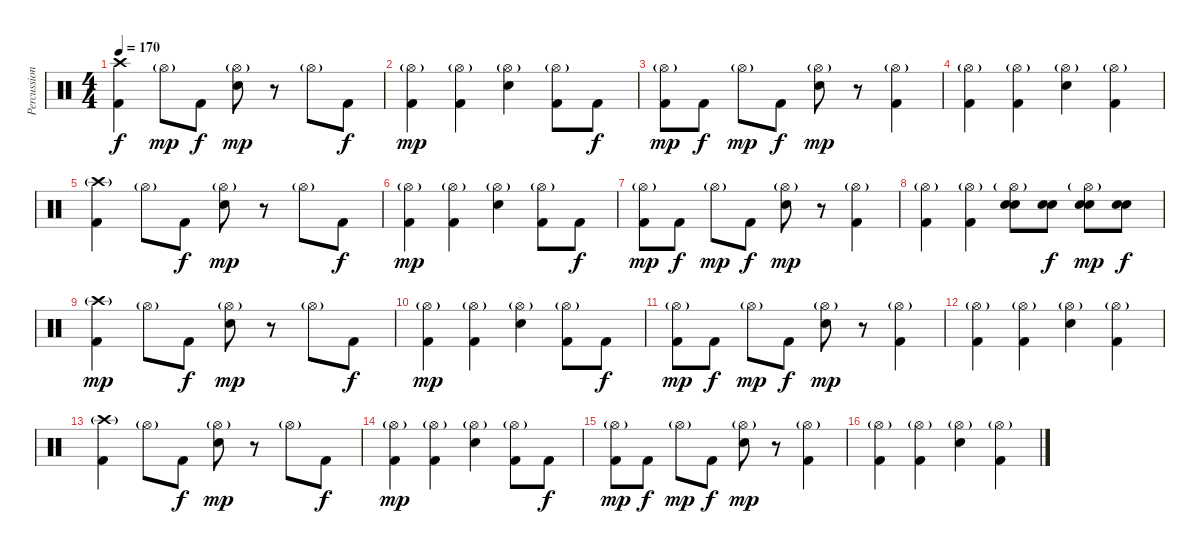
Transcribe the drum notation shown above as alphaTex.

\track ("Percussion" "Percussion") {instrument percussion}
\staff {score}
\articulation defaults
\ts (4 4)
\tempo 170
\clef neutral
\ks c
("Crash high (hit)" "Kick (hit) 2").4{dy f} "Hi-Hat (open)"{g}.8{dy mp} "Kick (hit) 2".8{dy f} ("Hi-Hat (open)"{g} "Electric Snare (hit)").8{dy mp} r.8 "Hi-Hat (open)"{g}.8 "Kick (hit) 2".8{dy f} |
("Hi-Hat (open)"{g} "Kick (hit) 2").4{dy mp} ("Hi-Hat (open)"{g} "Kick (hit) 2").4 ("Hi-Hat (open)"{g} "Electric Snare (hit)").4 ("Hi-Hat (open)"{g} "Kick (hit) 2").8 "Kick (hit) 2".8{dy f} |
("Hi-Hat (open)"{g} "Kick (hit) 2").8{dy mp} "Kick (hit) 2".8{dy f} "Hi-Hat (open)"{g}.8{dy mp} "Kick (hit) 2".8{dy f} ("Hi-Hat (open)"{g} "Electric Snare (hit)").8{dy mp} r.8 ("Hi-Hat (open)"{g} "Kick (hit) 2").4 |
("Hi-Hat (open)"{g} "Kick (hit) 2").4 ("Hi-Hat (open)"{g} "Kick (hit) 2").4 ("Hi-Hat (open)"{g} "Electric Snare (hit)").4 ("Hi-Hat (open)"{g} "Kick (hit) 2").4 |
("Crash high (hit)"{g} "Kick (hit) 2").4 "Hi-Hat (open)"{g}.8 "Kick (hit) 2".8{dy f} ("Hi-Hat (open)"{g} "Electric Snare (hit)").8{dy mp} r.8 "Hi-Hat (open)"{g}.8 "Kick (hit) 2".8{dy f} |
("Hi-Hat (open)"{g} "Kick (hit) 2").4{dy mp} ("Hi-Hat (open)"{g} "Kick (hit) 2").4 ("Hi-Hat (open)"{g} "Electric Snare (hit)").4 ("Hi-Hat (open)"{g} "Kick (hit) 2").8 "Kick (hit) 2".8{dy f} |
("Hi-Hat (open)"{g} "Kick (hit) 2").8{dy mp} "Kick (hit) 2".8{dy f} "Hi-Hat (open)"{g}.8{dy mp} "Kick (hit) 2".8{dy f} ("Hi-Hat (open)"{g} "Electric Snare (hit)").8{dy mp} r.8 ("Hi-Hat (open)"{g} "Kick (hit) 2").4 |
("Hi-Hat (open)"{g} "Kick (hit) 2").4 ("Hi-Hat (open)"{g} "Kick (hit) 2").4 ("Hi-Hat (open)"{g} "Electric Snare (hit)" "Electric Snare (hit)").8 ("Electric Snare (hit)" "Electric Snare (hit)").8{dy f} ("Hi-Hat (open)"{g} "Electric Snare (hit)" "Electric Snare (hit)").8{dy mp} ("Electric Snare (hit)" "Electric Snare (hit)").8{dy f} |
("Crash high (hit)"{g} "Kick (hit) 2").4{dy mp} "Hi-Hat (open)"{g}.8 "Kick (hit) 2".8{dy f} ("Hi-Hat (open)"{g} "Electric Snare (hit)").8{dy mp} r.8 "Hi-Hat (open)"{g}.8 "Kick (hit) 2".8{dy f} |
("Hi-Hat (open)"{g} "Kick (hit) 2").4{dy mp} ("Hi-Hat (open)"{g} "Kick (hit) 2").4 ("Hi-Hat (open)"{g} "Electric Snare (hit)").4 ("Hi-Hat (open)"{g} "Kick (hit) 2").8 "Kick (hit) 2".8{dy f} |
("Hi-Hat (open)"{g} "Kick (hit) 2").8{dy mp} "Kick (hit) 2".8{dy f} "Hi-Hat (open)"{g}.8{dy mp} "Kick (hit) 2".8{dy f} ("Hi-Hat (open)"{g} "Electric Snare (hit)").8{dy mp} r.8 ("Hi-Hat (open)"{g} "Kick (hit) 2").4 |
("Hi-Hat (open)"{g} "Kick (hit) 2").4 ("Hi-Hat (open)"{g} "Kick (hit) 2").4 ("Hi-Hat (open)"{g} "Electric Snare (hit)").4 ("Hi-Hat (open)"{g} "Kick (hit) 2").4 |
("Crash high (hit)"{g} "Kick (hit) 2").4 "Hi-Hat (open)"{g}.8 "Kick (hit) 2".8{dy f} ("Hi-Hat (open)"{g} "Electric Snare (hit)").8{dy mp} r.8 "Hi-Hat (open)"{g}.8 "Kick (hit) 2".8{dy f} |
("Hi-Hat (open)"{g} "Kick (hit) 2").4{dy mp} ("Hi-Hat (open)"{g} "Kick (hit) 2").4 ("Hi-Hat (open)"{g} "Electric Snare (hit)").4 ("Hi-Hat (open)"{g} "Kick (hit) 2").8 "Kick (hit) 2".8{dy f} |
("Hi-Hat (open)"{g} "Kick (hit) 2").8{dy mp} "Kick (hit) 2".8{dy f} "Hi-Hat (open)"{g}.8{dy mp} "Kick (hit) 2".8{dy f} ("Hi-Hat (open)"{g} "Electric Snare (hit)").8{dy mp} r.8 ("Hi-Hat (open)"{g} "Kick (hit) 2").4 |
("Hi-Hat (open)"{g} "Kick (hit) 2").4 ("Hi-Hat (open)"{g} "Kick (hit) 2").4 ("Hi-Hat (open)"{g} "Electric Snare (hit)").4 ("Hi-Hat (open)"{g} "Kick (hit) 2").4
